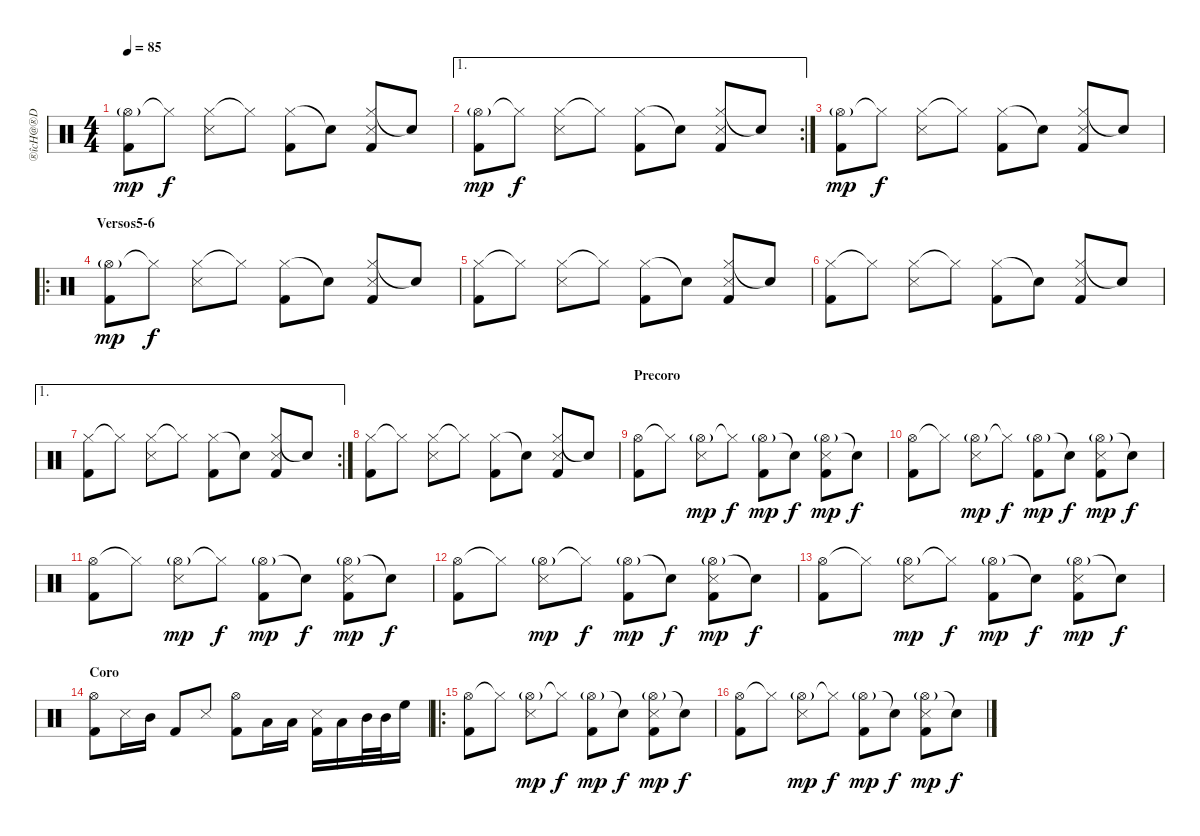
\track ("®îcH@®D" "®îcH@®D") {instrument percussion}
\staff {score}
\articulation defaults
\ts (4 4)
\tempo 85
\clef neutral
\ks c
("Hi-Hat (open)"{g} "Kick (hit) 2").8{dy mp} "Hi-Hat (closed)"{t}.8{dy f} ("Hi-Hat (closed)" "Snare (side stick) 3").8 "Hi-Hat (closed)"{t}.8 ("Hi-Hat (closed)" "Kick (hit) 2").8 "Snare (hit)"{t}.8 ("Hi-Hat (closed)" "Snare (side stick) 3" "Kick (hit) 2").8 "Snare (hit)"{t}.8 |
\ae 1
\rc 2
("Hi-Hat (open)"{g} "Kick (hit) 2").8{dy mp} "Hi-Hat (closed)"{t}.8{dy f} ("Hi-Hat (closed)" "Snare (side stick) 3").8 "Hi-Hat (closed)"{t}.8 ("Hi-Hat (closed)" "Kick (hit) 2").8 "Snare (hit)"{t}.8 ("Hi-Hat (closed)" "Snare (side stick) 3" "Kick (hit) 2").8 "Snare (hit)"{t}.8 |
("Hi-Hat (open)"{g} "Kick (hit) 2").8{dy mp} "Hi-Hat (closed)"{t}.8{dy f} ("Hi-Hat (closed)" "Snare (side stick) 3").8 "Hi-Hat (closed)"{t}.8 ("Hi-Hat (closed)" "Kick (hit) 2").8 "Snare (hit)"{t}.8 ("Hi-Hat (closed)" "Snare (side stick) 3" "Kick (hit) 2").8 "Snare (hit)"{t}.8 |
\ro
\section ("" "Versos5-6")
("Hi-Hat (open)"{g} "Kick (hit) 2").8{dy mp volume 13} "Hi-Hat (closed)"{t}.8{dy f} ("Hi-Hat (closed)" "Snare (side stick) 3").8 "Hi-Hat (closed)"{t}.8 ("Hi-Hat (closed)" "Kick (hit) 2").8 "Snare (hit)"{t}.8 ("Hi-Hat (closed)" "Snare (side stick) 3" "Kick (hit) 2").8 "Snare (hit)"{t}.8 |
("Hi-Hat (closed)" "Kick (hit) 2").8 "Hi-Hat (closed)"{t}.8 ("Hi-Hat (closed)" "Snare (side stick) 3").8 "Hi-Hat (closed)"{t}.8 ("Hi-Hat (closed)" "Kick (hit) 2").8 "Snare (hit)"{t}.8 ("Hi-Hat (closed)" "Snare (side stick) 3" "Kick (hit) 2").8 "Snare (hit)"{t}.8 |
("Hi-Hat (closed)" "Kick (hit) 2").8 "Hi-Hat (closed)"{t}.8 ("Hi-Hat (closed)" "Snare (side stick) 3").8 "Hi-Hat (closed)"{t}.8 ("Hi-Hat (closed)" "Kick (hit) 2").8 "Snare (hit)"{t}.8 ("Hi-Hat (closed)" "Snare (side stick) 3" "Kick (hit) 2").8 "Snare (hit)"{t}.8 |
\ae 1
\rc 2
("Hi-Hat (closed)" "Kick (hit) 2").8 "Hi-Hat (closed)"{t}.8 ("Hi-Hat (closed)" "Snare (side stick) 3").8 "Hi-Hat (closed)"{t}.8 ("Hi-Hat (closed)" "Kick (hit) 2").8 "Snare (hit)"{t}.8 ("Hi-Hat (closed)" "Snare (side stick) 3" "Kick (hit) 2").8 "Snare (hit)"{t}.8 |
\section ("" "")
("Hi-Hat (closed)" "Kick (hit) 2").8 "Hi-Hat (closed)"{t}.8 ("Hi-Hat (closed)" "Snare (side stick) 3").8 "Hi-Hat (closed)"{t}.8 ("Hi-Hat (closed)" "Kick (hit) 2").8 "Snare (hit)"{t}.8 ("Hi-Hat (closed)" "Snare (side stick) 3" "Kick (hit) 2").8 "Snare (hit)"{t}.8 |
\section ("" "Precoro")
("Hi-Hat (open)" "Kick (hit) 2").8{volume 16} "Hi-Hat (closed)"{t}.8 ("Hi-Hat (open)"{g} "Snare (side stick) 3").8{dy mp} "Hi-Hat (closed)"{t}.8{dy f} ("Hi-Hat (open)"{g} "Kick (hit) 2").8{dy mp} "Snare (hit)"{t}.8{dy f} ("Hi-Hat (open)"{g} "Snare (side stick) 3" "Kick (hit) 2").8{dy mp} "Snare (hit)"{t}.8{dy f} |
("Hi-Hat (open)" "Kick (hit) 2").8 "Hi-Hat (closed)"{t}.8 ("Hi-Hat (open)"{g} "Snare (side stick) 3").8{dy mp} "Hi-Hat (closed)"{t}.8{dy f} ("Hi-Hat (open)"{g} "Kick (hit) 2").8{dy mp} "Snare (hit)"{t}.8{dy f} ("Hi-Hat (open)"{g} "Snare (side stick) 3" "Kick (hit) 2").8{dy mp} "Snare (hit)"{t}.8{dy f} |
("Hi-Hat (open)" "Kick (hit) 2").8 "Hi-Hat (closed)"{t}.8 ("Hi-Hat (open)"{g} "Snare (side stick) 3").8{dy mp} "Hi-Hat (closed)"{t}.8{dy f} ("Hi-Hat (open)"{g} "Kick (hit) 2").8{dy mp} "Snare (hit)"{t}.8{dy f} ("Hi-Hat (open)"{g} "Snare (side stick) 3" "Kick (hit) 2").8{dy mp} "Snare (hit)"{t}.8{dy f} |
("Hi-Hat (open)" "Kick (hit) 2").8 "Hi-Hat (closed)"{t}.8 ("Hi-Hat (open)"{g} "Snare (side stick) 3").8{dy mp} "Hi-Hat (closed)"{t}.8{dy f} ("Hi-Hat (open)"{g} "Kick (hit) 2").8{dy mp} "Snare (hit)"{t}.8{dy f} ("Hi-Hat (open)"{g} "Snare (side stick) 3" "Kick (hit) 2").8{dy mp} "Snare (hit)"{t}.8{dy f} |
("Hi-Hat (open)" "Kick (hit) 2").8 "Hi-Hat (closed)"{t}.8 ("Hi-Hat (open)"{g} "Snare (side stick) 3").8{dy mp} "Hi-Hat (closed)"{t}.8{dy f} ("Hi-Hat (open)"{g} "Kick (hit) 2").8{dy mp} "Snare (hit)"{t}.8{dy f} ("Hi-Hat (open)"{g} "Snare (side stick) 3" "Kick (hit) 2").8{dy mp} "Snare (hit)"{t}.8{dy f} |
\section ("" "Coro")
("Hi-Hat (open)" "Kick (hit) 2").8{volume 16} "Snare (side stick) 3".16 "Mid Tom (hit)".16 "Kick (hit) 2".8 "Snare (side stick) 3".8 ("Hi-Hat (open)" "Kick (hit) 2").8 "Low Floor Tom (hit)".16 "Low Tom (hit)".16 ("Snare (side stick) 3" "Kick (hit) 2").16 "Low Tom (hit)".16 "Mid Tom (hit)".32 "Mid Tom (hit)".32 "High Floor Tom (hit)".16 |
\ro
("Hi-Hat (open)" "Kick (hit) 2").8{volume 13} "Hi-Hat (closed)"{t}.8 ("Hi-Hat (open)"{g} "Snare (side stick) 3").8{dy mp} "Hi-Hat (closed)"{t}.8{dy f} ("Hi-Hat (open)"{g} "Kick (hit) 2").8{dy mp} "Snare (hit)"{t}.8{dy f} ("Hi-Hat (open)"{g} "Snare (side stick) 3" "Kick (hit) 2").8{dy mp} "Snare (hit)"{t}.8{dy f} |
("Hi-Hat (open)" "Kick (hit) 2").8 "Hi-Hat (closed)"{t}.8 ("Hi-Hat (open)"{g} "Snare (side stick) 3").8{dy mp} "Hi-Hat (closed)"{t}.8{dy f} ("Hi-Hat (open)"{g} "Kick (hit) 2").8{dy mp} "Snare (hit)"{t}.8{dy f} ("Hi-Hat (open)"{g} "Snare (side stick) 3" "Kick (hit) 2").8{dy mp} "Snare (hit)"{t}.8{dy f}
